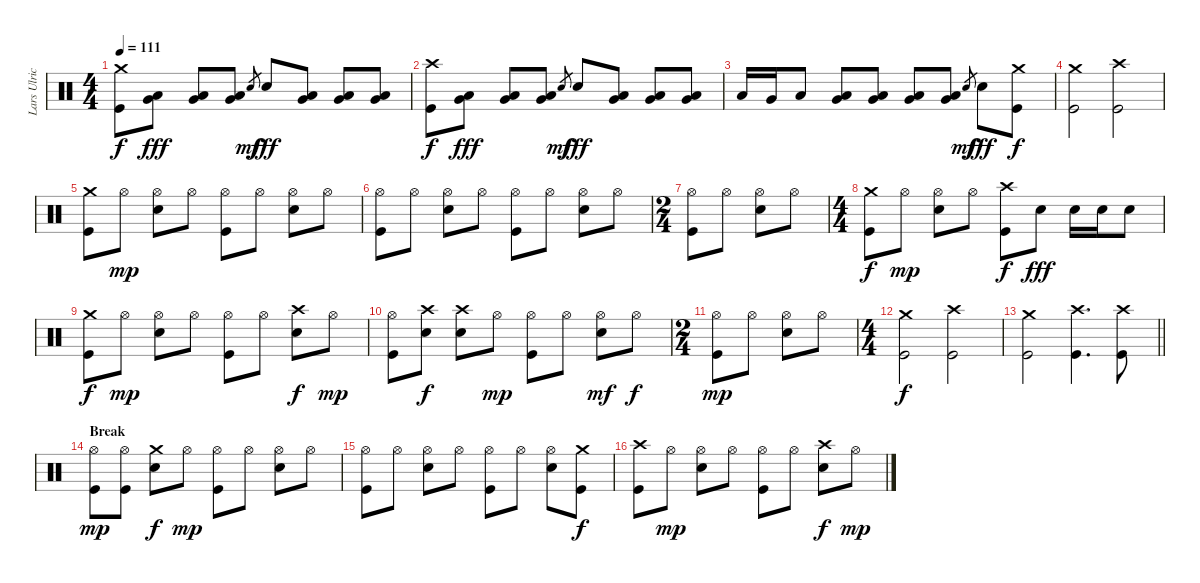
\track ("Lars Ulrich (Drums)" "Lars Ulric") {instrument percussion}
\staff {score}
\articulation defaults
\ts (4 4)
\tempo 111
\clef neutral
\ks c
("Crash medium (hit)" "Kick (hit)").8{dy f} ("Low Tom (hit)" "Very Low Tom (hit)").8{dy fff} ("Low Tom (hit)" "Very Low Tom (hit)").8 ("Low Tom (hit)" "Very Low Tom (hit)").8 "Snare (hit)".8{gr dy mf} "Snare (hit) 2".8{dy fff} ("Low Tom (hit)" "Very Low Tom (hit)").8 ("Low Tom (hit)" "Very Low Tom (hit)").8 ("Very Low Tom (hit)" "Low Floor Tom (hit)").8 |
("Crash high (hit)" "Kick (hit)").8{dy f} ("Low Tom (hit)" "Very Low Tom (hit)").8{dy fff} ("Low Tom (hit)" "Very Low Tom (hit)").8 ("Low Tom (hit)" "Very Low Tom (hit)").8 "Snare (hit)".8{gr dy mf} "Snare (hit) 2".8{dy fff} ("Low Tom (hit)" "Very Low Tom (hit)").8 ("Low Tom (hit)" "Very Low Tom (hit)").8 ("Very Low Tom (hit)" "Low Floor Tom (hit)").8 |
"Low Tom (hit)".16 "Very Low Tom (hit)".16 "Low Floor Tom (hit)".8 ("Very Low Tom (hit)" "Low Floor Tom (hit)").8 ("Very Low Tom (hit)" "Low Floor Tom (hit)").8 ("Very Low Tom (hit)" "Low Floor Tom (hit)").8 ("Very Low Tom (hit)" "Low Floor Tom (hit)").8 "Snare (hit)".8{gr dy mf} "Snare (hit) 2".8{dy fff} ("Crash medium (hit)" "Kick (hit)").8{dy f} |
("Crash medium (hit)" "Kick (hit)").2 ("Crash high (hit)" "Kick (hit)").2 |
("Crash medium (hit)" "Kick (hit)").8 "Hi-Hat (open)".8{dy mp} ("Hi-Hat (open)" "Snare (hit) 2").8 "Hi-Hat (open)".8 ("Hi-Hat (open)" "Kick (hit)").8 "Hi-Hat (open)".8 ("Hi-Hat (open)" "Snare (hit) 2").8 "Hi-Hat (open)".8 |
("Hi-Hat (open)" "Kick (hit)").8 "Hi-Hat (open)".8 ("Hi-Hat (open)" "Snare (hit) 2").8 "Hi-Hat (open)".8 ("Hi-Hat (open)" "Kick (hit)").8 "Hi-Hat (open)".8 ("Hi-Hat (open)" "Snare (hit) 2").8 "Hi-Hat (open)".8 |
\ts (2 4)
("Hi-Hat (open)" "Kick (hit)").8 "Hi-Hat (open)".8 ("Hi-Hat (open)" "Snare (hit) 2").8 "Hi-Hat (open)".8 |
\ts (4 4)
("Crash medium (hit)" "Kick (hit)").8{dy f} "Hi-Hat (open)".8{dy mp} ("Hi-Hat (open)" "Snare (hit) 2").8 "Hi-Hat (open)".8 ("Crash high (hit)" "Kick (hit)").8{dy f} "Snare (hit) 2".8{dy fff} "Snare (hit) 2".16 "Snare (hit) 2".16 "Snare (hit) 2".8 |
("Crash medium (hit)" "Kick (hit)").8{dy f} "Hi-Hat (open)".8{dy mp} ("Hi-Hat (open)" "Snare (hit) 2").8 "Hi-Hat (open)".8 ("Hi-Hat (open)" "Kick (hit)").8 "Hi-Hat (open)".8 ("Crash high (hit)" "Snare (hit) 2").8{dy f} "Hi-Hat (open)".8{dy mp} |
("Hi-Hat (open)" "Kick (hit)").8 ("Crash high (hit)" "Snare (hit) 2").8{dy f} ("Crash high (hit)" "Snare (hit) 2").8 "Hi-Hat (open)".8{dy mp} ("Hi-Hat (open)" "Kick (hit)").8 "Hi-Hat (open)".8 ("Hi-Hat (open)" "Snare (hit) 2").8{dy mf} "Hi-Hat (open)".8{dy f} |
\ts (2 4)
("Hi-Hat (open)" "Kick (hit)").8{dy mp} "Hi-Hat (open)".8 ("Hi-Hat (open)" "Snare (hit) 2").8 "Hi-Hat (open)".8 |
\ts (4 4)
("Crash medium (hit)" "Kick (hit)").2{dy f} ("Crash high (hit)" "Kick (hit)").2 |
\barLineRight lightlight
("Crash medium (hit)" "Kick (hit)").2 ("Crash high (hit)" "Kick (hit)").4{d} ("Crash high (hit)" "Kick (hit)").8 |
\section ("" "Break")
("Hi-Hat (open)" "Kick (hit)").8{dy mp} ("Hi-Hat (open)" "Kick (hit)").8 ("Crash medium (hit)" "Snare (hit) 2").8{dy f} "Hi-Hat (open)".8{dy mp} ("Hi-Hat (open)" "Kick (hit)").8 "Hi-Hat (open)".8 ("Hi-Hat (open)" "Snare (hit) 2").8 "Hi-Hat (open)".8 |
("Hi-Hat (open)" "Kick (hit)").8 "Hi-Hat (open)".8 ("Hi-Hat (open)" "Snare (hit) 2").8 "Hi-Hat (open)".8 ("Hi-Hat (open)" "Kick (hit)").8 "Hi-Hat (open)".8 ("Hi-Hat (open)" "Snare (hit) 2").8 ("Crash medium (hit)" "Kick (hit)").8{dy f} |
("Crash high (hit)" "Kick (hit)").8 "Hi-Hat (open)".8{dy mp} ("Hi-Hat (open)" "Snare (hit) 2").8 "Hi-Hat (open)".8 ("Hi-Hat (open)" "Kick (hit)").8 "Hi-Hat (open)".8 ("Crash high (hit)" "Snare (hit) 2").8{dy f} "Hi-Hat (open)".8{dy mp}
